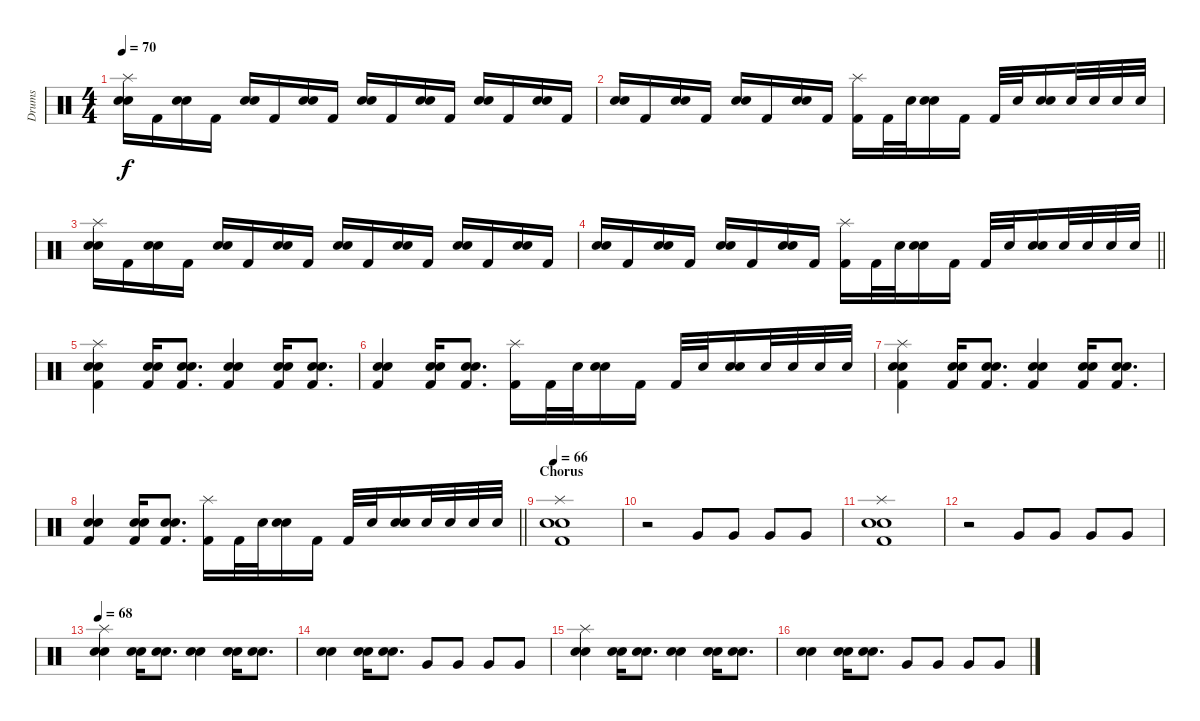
\track ("Drums" "Drums") {instrument percussion}
\staff {score}
\articulation defaults
\ts (4 4)
\tempo 70
\clef neutral
\ks c
("Splash (hit)" "Snare (hit) 2" "Electric Snare (hit)").16{dy f} "Kick (hit) 2".16 ("Snare (hit) 2" "Electric Snare (hit)").16 "Kick (hit) 2".16 ("Snare (hit) 2" "Electric Snare (hit)").16 "Kick (hit) 2".16 ("Snare (hit) 2" "Electric Snare (hit)").16 "Kick (hit) 2".16 ("Snare (hit) 2" "Electric Snare (hit)").16 "Kick (hit) 2".16 ("Snare (hit) 2" "Electric Snare (hit)").16 "Kick (hit) 2".16 ("Snare (hit) 2" "Electric Snare (hit)").16 "Kick (hit) 2".16 ("Snare (hit) 2" "Electric Snare (hit)").16 "Kick (hit) 2".16 |
("Snare (hit) 2" "Electric Snare (hit)").16 "Kick (hit) 2".16 ("Snare (hit) 2" "Electric Snare (hit)").16 "Kick (hit) 2".16 ("Snare (hit) 2" "Electric Snare (hit)").16 "Kick (hit) 2".16 ("Snare (hit) 2" "Electric Snare (hit)").16 "Kick (hit) 2".16 ("Splash (hit)" "Kick (hit) 2").16 "Kick (hit) 2".32 "Snare (hit) 2".32 ("Snare (hit) 2" "Electric Snare (hit)").16 "Kick (hit) 2".16 "Kick (hit) 2".32 "Snare (hit) 2".32 ("Snare (hit) 2" "Electric Snare (hit)").16 "Snare (hit) 2".32 "Snare (hit) 2".32 "Snare (hit) 2".32 "Snare (hit) 2".32 |
("Splash (hit)" "Snare (hit) 2" "Electric Snare (hit)").16 "Kick (hit) 2".16 ("Snare (hit) 2" "Electric Snare (hit)").16 "Kick (hit) 2".16 ("Snare (hit) 2" "Electric Snare (hit)").16 "Kick (hit) 2".16 ("Snare (hit) 2" "Electric Snare (hit)").16 "Kick (hit) 2".16 ("Snare (hit) 2" "Electric Snare (hit)").16 "Kick (hit) 2".16 ("Snare (hit) 2" "Electric Snare (hit)").16 "Kick (hit) 2".16 ("Snare (hit) 2" "Electric Snare (hit)").16 "Kick (hit) 2".16 ("Snare (hit) 2" "Electric Snare (hit)").16 "Kick (hit) 2".16 |
\barLineRight lightlight
("Snare (hit) 2" "Electric Snare (hit)").16 "Kick (hit) 2".16 ("Snare (hit) 2" "Electric Snare (hit)").16 "Kick (hit) 2".16 ("Snare (hit) 2" "Electric Snare (hit)").16 "Kick (hit) 2".16 ("Snare (hit) 2" "Electric Snare (hit)").16 "Kick (hit) 2".16 ("Splash (hit)" "Kick (hit) 2").16 "Kick (hit) 2".32 "Snare (hit) 2".32 ("Snare (hit) 2" "Electric Snare (hit)").16 "Kick (hit) 2".16 "Kick (hit) 2".32 "Snare (hit) 2".32 ("Snare (hit) 2" "Electric Snare (hit)").16 "Snare (hit) 2".32 "Snare (hit) 2".32 "Snare (hit) 2".32 "Snare (hit) 2".32 |
("Splash (hit)" "Snare (hit) 2" "Electric Snare (hit)" "Kick (hit) 2").4 ("Snare (hit) 2" "Electric Snare (hit)" "Kick (hit) 2").16 ("Snare (hit) 2" "Electric Snare (hit)" "Kick (hit) 2").8{d} ("Snare (hit) 2" "Electric Snare (hit)" "Kick (hit) 2").4 ("Snare (hit) 2" "Electric Snare (hit)" "Kick (hit) 2").16 ("Snare (hit) 2" "Electric Snare (hit)" "Kick (hit) 2").8{d} |
("Snare (hit) 2" "Electric Snare (hit)" "Kick (hit) 2").4 ("Snare (hit) 2" "Electric Snare (hit)" "Kick (hit) 2").16 ("Snare (hit) 2" "Electric Snare (hit)" "Kick (hit) 2").8{d} ("Splash (hit)" "Kick (hit) 2").16 "Kick (hit) 2".32 "Snare (hit) 2".32 ("Snare (hit) 2" "Electric Snare (hit)").16 "Kick (hit) 2".16 "Kick (hit) 2".32 "Snare (hit) 2".32 ("Snare (hit) 2" "Electric Snare (hit)").16 "Snare (hit) 2".32 "Snare (hit) 2".32 "Snare (hit) 2".32 "Snare (hit) 2".32 |
("Splash (hit)" "Snare (hit) 2" "Electric Snare (hit)" "Kick (hit) 2").4 ("Snare (hit) 2" "Electric Snare (hit)" "Kick (hit) 2").16 ("Snare (hit) 2" "Electric Snare (hit)" "Kick (hit) 2").8{d} ("Snare (hit) 2" "Electric Snare (hit)" "Kick (hit) 2").4 ("Snare (hit) 2" "Electric Snare (hit)" "Kick (hit) 2").16 ("Snare (hit) 2" "Electric Snare (hit)" "Kick (hit) 2").8{d} |
\barLineRight lightlight
("Snare (hit) 2" "Electric Snare (hit)" "Kick (hit) 2").4 ("Snare (hit) 2" "Electric Snare (hit)" "Kick (hit) 2").16 ("Snare (hit) 2" "Electric Snare (hit)" "Kick (hit) 2").8{d} ("Splash (hit)" "Kick (hit) 2").16 "Kick (hit) 2".32 "Snare (hit) 2".32 ("Snare (hit) 2" "Electric Snare (hit)").16 "Kick (hit) 2".16 "Kick (hit) 2".32 "Snare (hit) 2".32 ("Snare (hit) 2" "Electric Snare (hit)").16 "Snare (hit) 2".32 "Snare (hit) 2".32 "Snare (hit) 2".32 "Snare (hit) 2".32 |
\section ("" "Chorus")
\tempo 66
("Splash (hit)" "Snare (hit) 2" "Electric Snare (hit)" "Kick (hit) 2").1 |
r.2 "Very Low Tom (hit)".8 "Very Low Tom (hit)".8 "Very Low Tom (hit)".8 "Very Low Tom (hit)".8 |
("Splash (hit)" "Snare (hit) 2" "Electric Snare (hit)" "Kick (hit) 2").1 |
r.2 "Very Low Tom (hit)".8 "Very Low Tom (hit)".8 "Very Low Tom (hit)".8 "Very Low Tom (hit)".8 |
\tempo 68
("Splash (hit)" "Snare (hit) 2" "Electric Snare (hit)").4 ("Snare (hit) 2" "Electric Snare (hit)").16 ("Snare (hit) 2" "Electric Snare (hit)").8{d} ("Snare (hit) 2" "Electric Snare (hit)").4 ("Snare (hit) 2" "Electric Snare (hit)").16 ("Snare (hit) 2" "Electric Snare (hit)").8{d} |
("Snare (hit) 2" "Electric Snare (hit)").4 ("Snare (hit) 2" "Electric Snare (hit)").16 ("Snare (hit) 2" "Electric Snare (hit)").8{d} "Very Low Tom (hit)".8 "Very Low Tom (hit)".8 "Very Low Tom (hit)".8 "Very Low Tom (hit)".8 |
("Splash (hit)" "Snare (hit) 2" "Electric Snare (hit)").4 ("Snare (hit) 2" "Electric Snare (hit)").16 ("Snare (hit) 2" "Electric Snare (hit)").8{d} ("Snare (hit) 2" "Electric Snare (hit)").4 ("Snare (hit) 2" "Electric Snare (hit)").16 ("Snare (hit) 2" "Electric Snare (hit)").8{d} |
("Snare (hit) 2" "Electric Snare (hit)").4 ("Snare (hit) 2" "Electric Snare (hit)").16 ("Snare (hit) 2" "Electric Snare (hit)").8{d} "Very Low Tom (hit)".8 "Very Low Tom (hit)".8 "Very Low Tom (hit)".8 "Very Low Tom (hit)".8
